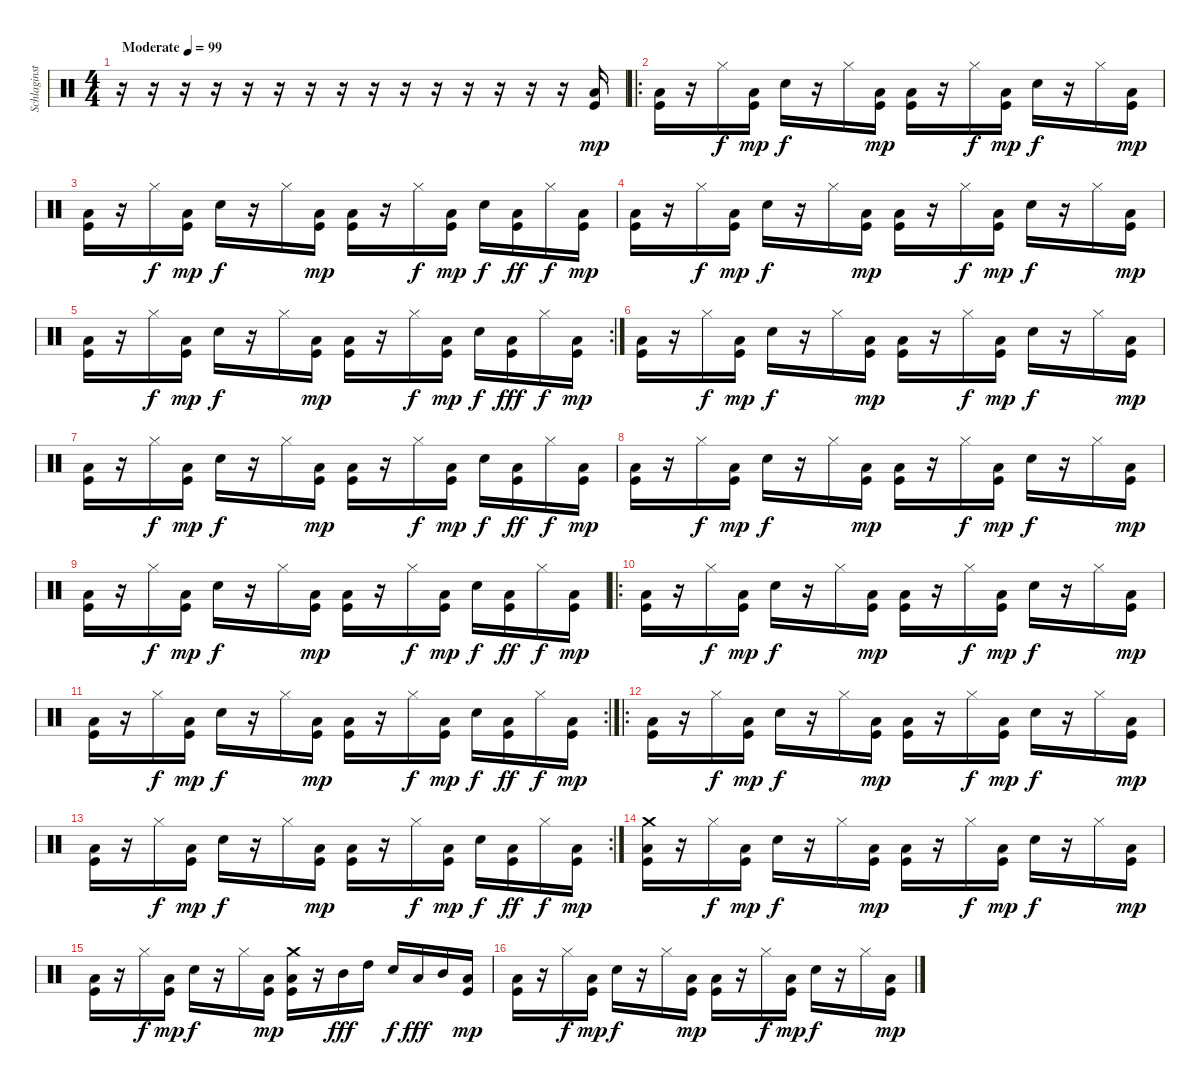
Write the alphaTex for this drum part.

\track ("Schlaginstrumente - Auswahl" "Schlaginst") {instrument percussion}
\staff {score}
\articulation defaults
\ts (4 4)
\tempo (99 "Moderate")
\clef neutral
\ks c
r.16{dy mp} r.16 r.16 r.16 r.16 r.16 r.16 r.16 r.16 r.16 r.16 r.16 r.16 r.16 r.16 ("Low Floor Tom (hit)" "Kick (hit)").16 |
\ro
("Low Floor Tom (hit)" "Kick (hit)").16 r.16 "Hi-Hat (closed)".16{dy f} ("Low Floor Tom (hit)" "Kick (hit)").16{dy mp} "Snare (hit) 2".16{dy f} r.16 "Hi-Hat (closed)".16 ("Low Floor Tom (hit)" "Kick (hit)").16{dy mp} ("Low Floor Tom (hit)" "Kick (hit)").16 r.16 "Hi-Hat (closed)".16{dy f} ("Low Floor Tom (hit)" "Kick (hit)").16{dy mp} "Snare (hit) 2".16{dy f} r.16 "Hi-Hat (closed)".16 ("Low Floor Tom (hit)" "Kick (hit)").16{dy mp} |
("Low Floor Tom (hit)" "Kick (hit)").16 r.16 "Hi-Hat (closed)".16{dy f} ("Low Floor Tom (hit)" "Kick (hit)").16{dy mp} "Snare (hit) 2".16{dy f} r.16 "Hi-Hat (closed)".16 ("Low Floor Tom (hit)" "Kick (hit)").16{dy mp} ("Low Floor Tom (hit)" "Kick (hit)").16 r.16 "Hi-Hat (closed)".16{dy f} ("Low Floor Tom (hit)" "Kick (hit)").16{dy mp} "Snare (hit) 2".16{dy f} ("Low Floor Tom (hit)" "Kick (hit)").16{dy ff} "Hi-Hat (closed)".16{dy f} ("Low Floor Tom (hit)" "Kick (hit)").16{dy mp} |
("Low Floor Tom (hit)" "Kick (hit)").16 r.16 "Hi-Hat (closed)".16{dy f} ("Low Floor Tom (hit)" "Kick (hit)").16{dy mp} "Snare (hit) 2".16{dy f} r.16 "Hi-Hat (closed)".16 ("Low Floor Tom (hit)" "Kick (hit)").16{dy mp} ("Low Floor Tom (hit)" "Kick (hit)").16 r.16 "Hi-Hat (closed)".16{dy f} ("Low Floor Tom (hit)" "Kick (hit)").16{dy mp} "Snare (hit) 2".16{dy f} r.16 "Hi-Hat (closed)".16 ("Low Floor Tom (hit)" "Kick (hit)").16{dy mp} |
\rc 2
("Low Floor Tom (hit)" "Kick (hit)").16 r.16 "Hi-Hat (closed)".16{dy f} ("Low Floor Tom (hit)" "Kick (hit)").16{dy mp} "Snare (hit) 2".16{dy f} r.16 "Hi-Hat (closed)".16 ("Low Floor Tom (hit)" "Kick (hit)").16{dy mp} ("Low Floor Tom (hit)" "Kick (hit)").16 r.16 "Hi-Hat (closed)".16{dy f} ("Low Floor Tom (hit)" "Kick (hit)").16{dy mp} "Snare (hit) 2".16{dy f} ("Low Floor Tom (hit)" "Kick (hit)").16{dy fff} "Hi-Hat (closed)".16{dy f} ("Low Floor Tom (hit)" "Kick (hit)").16{dy mp} |
("Low Floor Tom (hit)" "Kick (hit)").16 r.16 "Hi-Hat (closed)".16{dy f} ("Low Floor Tom (hit)" "Kick (hit)").16{dy mp} "Snare (hit) 2".16{dy f} r.16 "Hi-Hat (closed)".16 ("Low Floor Tom (hit)" "Kick (hit)").16{dy mp} ("Low Floor Tom (hit)" "Kick (hit)").16 r.16 "Hi-Hat (closed)".16{dy f} ("Low Floor Tom (hit)" "Kick (hit)").16{dy mp} "Snare (hit) 2".16{dy f} r.16 "Hi-Hat (closed)".16 ("Low Floor Tom (hit)" "Kick (hit)").16{dy mp} |
("Low Floor Tom (hit)" "Kick (hit)").16 r.16 "Hi-Hat (closed)".16{dy f} ("Low Floor Tom (hit)" "Kick (hit)").16{dy mp} "Snare (hit) 2".16{dy f} r.16 "Hi-Hat (closed)".16 ("Low Floor Tom (hit)" "Kick (hit)").16{dy mp} ("Low Floor Tom (hit)" "Kick (hit)").16 r.16 "Hi-Hat (closed)".16{dy f} ("Low Floor Tom (hit)" "Kick (hit)").16{dy mp} "Snare (hit) 2".16{dy f} ("Low Floor Tom (hit)" "Kick (hit)").16{dy ff} "Hi-Hat (closed)".16{dy f} ("Low Floor Tom (hit)" "Kick (hit)").16{dy mp} |
("Low Floor Tom (hit)" "Kick (hit)").16 r.16 "Hi-Hat (closed)".16{dy f} ("Low Floor Tom (hit)" "Kick (hit)").16{dy mp} "Snare (hit) 2".16{dy f} r.16 "Hi-Hat (closed)".16 ("Low Floor Tom (hit)" "Kick (hit)").16{dy mp} ("Low Floor Tom (hit)" "Kick (hit)").16 r.16 "Hi-Hat (closed)".16{dy f} ("Low Floor Tom (hit)" "Kick (hit)").16{dy mp} "Snare (hit) 2".16{dy f} r.16 "Hi-Hat (closed)".16 ("Low Floor Tom (hit)" "Kick (hit)").16{dy mp} |
("Low Floor Tom (hit)" "Kick (hit)").16 r.16 "Hi-Hat (closed)".16{dy f} ("Low Floor Tom (hit)" "Kick (hit)").16{dy mp} "Snare (hit) 2".16{dy f} r.16 "Hi-Hat (closed)".16 ("Low Floor Tom (hit)" "Kick (hit)").16{dy mp} ("Low Floor Tom (hit)" "Kick (hit)").16 r.16 "Hi-Hat (closed)".16{dy f} ("Low Floor Tom (hit)" "Kick (hit)").16{dy mp} "Snare (hit) 2".16{dy f} ("Low Floor Tom (hit)" "Kick (hit)").16{dy ff} "Hi-Hat (closed)".16{dy f} ("Low Floor Tom (hit)" "Kick (hit)").16{dy mp} |
\ro
("Low Floor Tom (hit)" "Kick (hit)").16 r.16 "Hi-Hat (closed)".16{dy f} ("Low Floor Tom (hit)" "Kick (hit)").16{dy mp} "Snare (hit) 2".16{dy f} r.16 "Hi-Hat (closed)".16 ("Low Floor Tom (hit)" "Kick (hit)").16{dy mp} ("Low Floor Tom (hit)" "Kick (hit)").16 r.16 "Hi-Hat (closed)".16{dy f} ("Low Floor Tom (hit)" "Kick (hit)").16{dy mp} "Snare (hit) 2".16{dy f} r.16 "Hi-Hat (closed)".16 ("Low Floor Tom (hit)" "Kick (hit)").16{dy mp} |
\rc 2
("Low Floor Tom (hit)" "Kick (hit)").16 r.16 "Hi-Hat (closed)".16{dy f} ("Low Floor Tom (hit)" "Kick (hit)").16{dy mp} "Snare (hit) 2".16{dy f} r.16 "Hi-Hat (closed)".16 ("Low Floor Tom (hit)" "Kick (hit)").16{dy mp} ("Low Floor Tom (hit)" "Kick (hit)").16 r.16 "Hi-Hat (closed)".16{dy f} ("Low Floor Tom (hit)" "Kick (hit)").16{dy mp} "Snare (hit) 2".16{dy f} ("Low Floor Tom (hit)" "Kick (hit)").16{dy ff} "Hi-Hat (closed)".16{dy f} ("Low Floor Tom (hit)" "Kick (hit)").16{dy mp} |
\ro
("Low Floor Tom (hit)" "Kick (hit)").16 r.16 "Hi-Hat (closed)".16{dy f} ("Low Floor Tom (hit)" "Kick (hit)").16{dy mp} "Snare (hit) 2".16{dy f} r.16 "Hi-Hat (closed)".16 ("Low Floor Tom (hit)" "Kick (hit)").16{dy mp} ("Low Floor Tom (hit)" "Kick (hit)").16 r.16 "Hi-Hat (closed)".16{dy f} ("Low Floor Tom (hit)" "Kick (hit)").16{dy mp} "Snare (hit) 2".16{dy f} r.16 "Hi-Hat (closed)".16 ("Low Floor Tom (hit)" "Kick (hit)").16{dy mp} |
\rc 2
("Low Floor Tom (hit)" "Kick (hit)").16 r.16 "Hi-Hat (closed)".16{dy f} ("Low Floor Tom (hit)" "Kick (hit)").16{dy mp} "Snare (hit) 2".16{dy f} r.16 "Hi-Hat (closed)".16 ("Low Floor Tom (hit)" "Kick (hit)").16{dy mp} ("Low Floor Tom (hit)" "Kick (hit)").16 r.16 "Hi-Hat (closed)".16{dy f} ("Low Floor Tom (hit)" "Kick (hit)").16{dy mp} "Snare (hit) 2".16{dy f} ("Low Floor Tom (hit)" "Kick (hit)").16{dy ff} "Hi-Hat (closed)".16{dy f} ("Low Floor Tom (hit)" "Kick (hit)").16{dy mp} |
("Crash medium (hit)" "Low Floor Tom (hit)" "Kick (hit)").16 r.16 "Hi-Hat (closed)".16{dy f} ("Low Floor Tom (hit)" "Kick (hit)").16{dy mp} "Snare (hit) 2".16{dy f} r.16 "Hi-Hat (closed)".16 ("Low Floor Tom (hit)" "Kick (hit)").16{dy mp} ("Low Floor Tom (hit)" "Kick (hit)").16 r.16 "Hi-Hat (closed)".16{dy f} ("Low Floor Tom (hit)" "Kick (hit)").16{dy mp} "Snare (hit) 2".16{dy f} r.16 "Hi-Hat (closed)".16 ("Low Floor Tom (hit)" "Kick (hit)").16{dy mp} |
("Low Floor Tom (hit)" "Kick (hit)").16 r.16 "Hi-Hat (closed)".16{dy f} ("Low Floor Tom (hit)" "Kick (hit)").16{dy mp} "Snare (hit) 2".16{dy f} r.16 "Hi-Hat (closed)".16 ("Low Floor Tom (hit)" "Kick (hit)").16{dy mp} ("Crash medium (hit)" "Low Floor Tom (hit)" "Kick (hit)").16 r.16 "Mid Tom (hit)".16{dy fff} "High Tom (hit)".16 "Snare (hit) 2".16{dy f} "Low Tom (hit)".16{dy fff} "Mid Tom (hit)".16 ("Low Floor Tom (hit)" "Kick (hit)").16{dy mp} |
("Low Floor Tom (hit)" "Kick (hit)").16 r.16 "Hi-Hat (closed)".16{dy f} ("Low Floor Tom (hit)" "Kick (hit)").16{dy mp} "Snare (hit) 2".16{dy f} r.16 "Hi-Hat (closed)".16 ("Low Floor Tom (hit)" "Kick (hit)").16{dy mp} ("Low Floor Tom (hit)" "Kick (hit)").16 r.16 "Hi-Hat (closed)".16{dy f} ("Low Floor Tom (hit)" "Kick (hit)").16{dy mp} "Snare (hit) 2".16{dy f} r.16 "Hi-Hat (closed)".16 ("Low Floor Tom (hit)" "Kick (hit)").16{dy mp}
